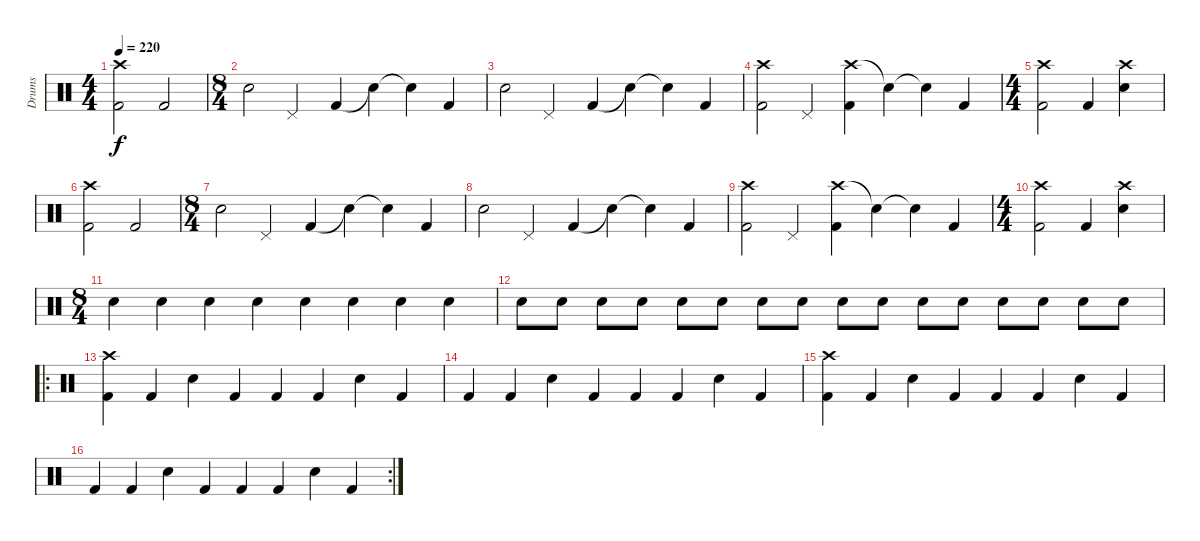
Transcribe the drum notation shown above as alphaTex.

\track ("Drums" "Drums") {instrument percussion}
\staff {score}
\articulation defaults
\ts (4 4)
\tempo 220
\clef neutral
\ks c
("Kick (hit) 2" "Crash high (hit)").2{dy f} "Kick (hit) 2".2 |
\ts (8 4)
"Electric Snare (hit)".2 "Pedal Hi-Hat (hit)".2 "Kick (hit) 2".4 "Snare (hit)"{t}.4 "Snare (hit)"{t}.4 "Kick (hit) 2".4 |
"Electric Snare (hit)".2 "Pedal Hi-Hat (hit)".2 "Kick (hit) 2".4 "Snare (hit)"{t}.4 "Snare (hit)"{t}.4 "Kick (hit) 2".4 |
("Crash high (hit)" "Kick (hit) 2").2 "Pedal Hi-Hat (hit)".2 ("Crash high (hit)" "Kick (hit) 2").4 "Snare (hit)"{t}.4 "Snare (hit)"{t}.4 "Kick (hit) 2".4 |
\ts (4 4)
("Crash high (hit)" "Kick (hit) 2").2 "Kick (hit) 2".4 ("Crash high (hit)" "Electric Snare (hit)").4 |
("Kick (hit) 2" "Crash high (hit)").2 "Kick (hit) 2".2 |
\ts (8 4)
"Electric Snare (hit)".2 "Pedal Hi-Hat (hit)".2 "Kick (hit) 2".4 "Snare (hit)"{t}.4 "Snare (hit)"{t}.4 "Kick (hit) 2".4 |
"Electric Snare (hit)".2 "Pedal Hi-Hat (hit)".2 "Kick (hit) 2".4 "Snare (hit)"{t}.4 "Snare (hit)"{t}.4 "Kick (hit) 2".4 |
("Crash high (hit)" "Kick (hit) 2").2 "Pedal Hi-Hat (hit)".2 ("Crash high (hit)" "Kick (hit) 2").4 "Snare (hit)"{t}.4 "Snare (hit)"{t}.4 "Kick (hit) 2".4 |
\ts (4 4)
("Crash high (hit)" "Kick (hit) 2").2 "Kick (hit) 2".4 ("Crash high (hit)" "Electric Snare (hit)").4 |
\ts (8 4)
"Electric Snare (hit)".4 "Electric Snare (hit)".4 "Electric Snare (hit)".4 "Electric Snare (hit)".4 "Electric Snare (hit)".4 "Electric Snare (hit)".4 "Electric Snare (hit)".4 "Electric Snare (hit)".4 |
"Electric Snare (hit)".8 "Electric Snare (hit)".8 "Electric Snare (hit)".8 "Electric Snare (hit)".8 "Electric Snare (hit)".8 "Electric Snare (hit)".8 "Electric Snare (hit)".8 "Electric Snare (hit)".8 "Electric Snare (hit)".8 "Electric Snare (hit)".8 "Electric Snare (hit)".8 "Electric Snare (hit)".8 "Electric Snare (hit)".8 "Electric Snare (hit)".8 "Electric Snare (hit)".8 "Electric Snare (hit)".8 |
\ro
("Crash high (hit)" "Kick (hit) 2").4 "Kick (hit) 2".4 "Electric Snare (hit)".4 "Kick (hit) 2".4 "Kick (hit) 2".4 "Kick (hit) 2".4 "Electric Snare (hit)".4 "Kick (hit) 2".4 |
"Kick (hit) 2".4 "Kick (hit) 2".4 "Electric Snare (hit)".4 "Kick (hit) 2".4 "Kick (hit) 2".4 "Kick (hit) 2".4 "Electric Snare (hit)".4 "Kick (hit) 2".4 |
("Crash high (hit)" "Kick (hit) 2").4 "Kick (hit) 2".4 "Electric Snare (hit)".4 "Kick (hit) 2".4 "Kick (hit) 2".4 "Kick (hit) 2".4 "Electric Snare (hit)".4 "Kick (hit) 2".4 |
\rc 2 "Kick (hit) 2".4 "Kick (hit) 2".4 "Electric Snare (hit)".4 "Kick (hit) 2".4 "Kick (hit) 2".4 "Kick (hit) 2".4 "Electric Snare (hit)".4 "Kick (hit) 2".4
